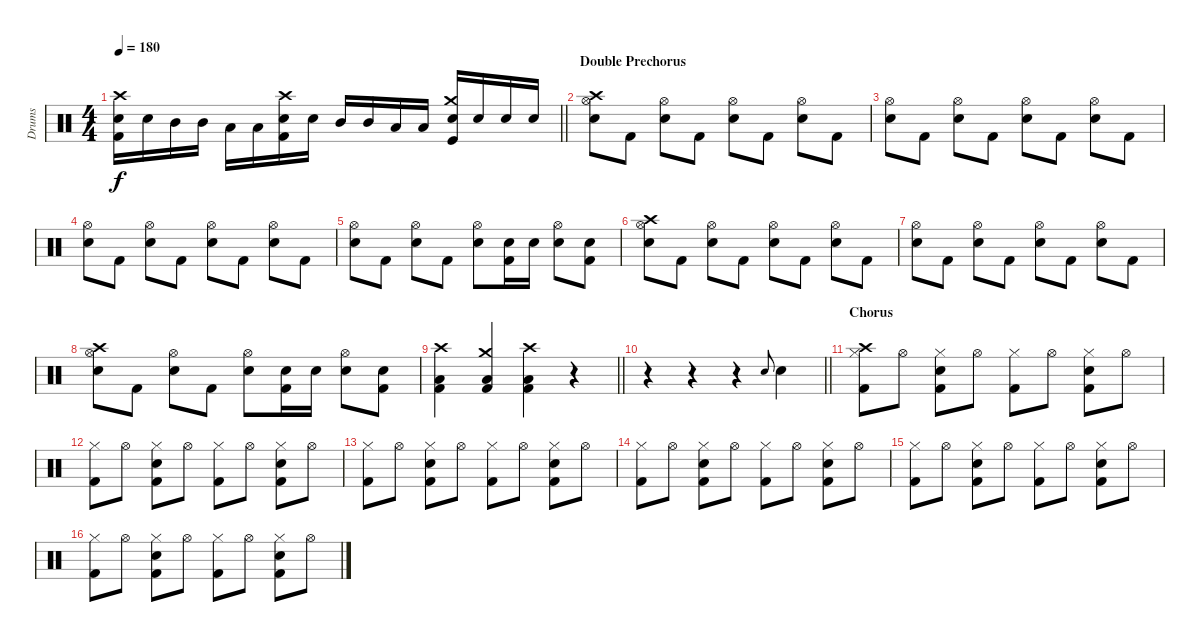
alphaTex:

\track ("Drums" "Drums") {instrument percussion}
\staff {score}
\articulation defaults
\ts (4 4)
\tempo 180
\clef neutral
\barLineRight lightlight
\ks c
("Crash high (hit)" "Snare (hit) 2" "Kick (hit) 2").16{dy f} "Snare (hit) 2".16 "Mid Tom (hit)".16 "Mid Tom (hit)".16 "Low Tom (hit)".16 "Low Tom (hit)".16 ("Crash high (hit)" "Snare (hit) 2" "Kick (hit) 2").16 "Snare (hit) 2".16 "Mid Tom (hit)".16 "Mid Tom (hit)".16 "Low Tom (hit)".16 "Low Tom (hit)".16 ("Crash medium (hit)" "Snare (hit) 2" "Kick (hit)").16 "Snare (hit) 2".16 "Snare (hit) 2".16 "Snare (hit) 2".16 |
\section ("" "Double Prechorus")
("Crash high (hit)" "Hi-Hat (open)" "Snare (hit) 2").8 "Kick (hit) 2".8 ("Hi-Hat (open)" "Snare (hit) 2").8 "Kick (hit) 2".8 ("Hi-Hat (open)" "Snare (hit) 2").8 "Kick (hit) 2".8 ("Hi-Hat (open)" "Snare (hit) 2").8 "Kick (hit) 2".8 |
("Hi-Hat (open)" "Snare (hit) 2").8 "Kick (hit) 2".8 ("Hi-Hat (open)" "Snare (hit) 2").8 "Kick (hit) 2".8 ("Hi-Hat (open)" "Snare (hit) 2").8 "Kick (hit) 2".8 ("Hi-Hat (open)" "Snare (hit) 2").8 "Kick (hit) 2".8 |
("Hi-Hat (open)" "Snare (hit) 2").8 "Kick (hit) 2".8 ("Hi-Hat (open)" "Snare (hit) 2").8 "Kick (hit) 2".8 ("Hi-Hat (open)" "Snare (hit) 2").8 "Kick (hit) 2".8 ("Hi-Hat (open)" "Snare (hit) 2").8 "Kick (hit) 2".8 |
("Hi-Hat (open)" "Snare (hit) 2").8 "Kick (hit) 2".8 ("Hi-Hat (open)" "Snare (hit) 2").8 "Kick (hit) 2".8 ("Hi-Hat (open)" "Snare (hit) 2").8 ("Snare (hit) 2" "Kick (hit) 2").16 "Snare (hit) 2".16 ("Hi-Hat (open)" "Snare (hit) 2").8 ("Snare (hit) 2" "Kick (hit) 2").8 |
("Crash high (hit)" "Hi-Hat (open)" "Snare (hit) 2").8 "Kick (hit) 2".8 ("Hi-Hat (open)" "Snare (hit) 2").8 "Kick (hit) 2".8 ("Hi-Hat (open)" "Snare (hit) 2").8 "Kick (hit) 2".8 ("Hi-Hat (open)" "Snare (hit) 2").8 "Kick (hit) 2".8 |
("Hi-Hat (open)" "Snare (hit) 2").8 "Kick (hit) 2".8 ("Hi-Hat (open)" "Snare (hit) 2").8 "Kick (hit) 2".8 ("Hi-Hat (open)" "Snare (hit) 2").8 "Kick (hit) 2".8 ("Hi-Hat (open)" "Snare (hit) 2").8 "Kick (hit) 2".8 |
("Crash high (hit)" "Hi-Hat (open)" "Snare (hit) 2").8 "Kick (hit) 2".8 ("Hi-Hat (open)" "Snare (hit) 2").8 "Kick (hit) 2".8 ("Hi-Hat (open)" "Snare (hit) 2").8 ("Snare (hit) 2" "Kick (hit) 2").16 "Snare (hit) 2".16 ("Hi-Hat (open)" "Snare (hit) 2").8 ("Snare (hit) 2" "Kick (hit) 2").8 |
\barLineRight lightlight
("Crash high (hit)" "Low Floor Tom (hit)" "Kick (hit) 2").4 ("Crash medium (hit)" "Low Floor Tom (hit)" "Kick (hit) 2").4 ("Crash high (hit)" "Low Floor Tom (hit)" "Kick (hit) 2").4 r.4 |
\barLineRight lightlight
r.4 r.4 r.4 "Snare (hit) 2".8{gr onbeat} "Snare (hit) 2".4 |
\section ("" "Chorus")
("Crash high (hit)" "Hi-Hat (closed)" "Kick (hit) 2").8 "Hi-Hat (open)".8 ("Hi-Hat (closed)" "Snare (hit) 2" "Kick (hit) 2").8 "Hi-Hat (open)".8 ("Hi-Hat (closed)" "Kick (hit) 2").8 "Hi-Hat (open)".8 ("Hi-Hat (closed)" "Snare (hit) 2" "Kick (hit) 2").8 "Hi-Hat (open)".8 |
("Hi-Hat (closed)" "Kick (hit) 2").8 "Hi-Hat (open)".8 ("Hi-Hat (closed)" "Snare (hit) 2" "Kick (hit) 2").8 "Hi-Hat (open)".8 ("Hi-Hat (closed)" "Kick (hit) 2").8 "Hi-Hat (open)".8 ("Hi-Hat (closed)" "Snare (hit) 2" "Kick (hit) 2").8 "Hi-Hat (open)".8 |
("Hi-Hat (closed)" "Kick (hit) 2").8 "Hi-Hat (open)".8 ("Hi-Hat (closed)" "Snare (hit) 2" "Kick (hit) 2").8 "Hi-Hat (open)".8 ("Hi-Hat (closed)" "Kick (hit) 2").8 "Hi-Hat (open)".8 ("Hi-Hat (closed)" "Snare (hit) 2" "Kick (hit) 2").8 "Hi-Hat (open)".8 |
("Hi-Hat (closed)" "Kick (hit) 2").8 "Hi-Hat (open)".8 ("Hi-Hat (closed)" "Snare (hit) 2" "Kick (hit) 2").8 "Hi-Hat (open)".8 ("Hi-Hat (closed)" "Kick (hit) 2").8 "Hi-Hat (open)".8 ("Hi-Hat (closed)" "Snare (hit) 2" "Kick (hit) 2").8 "Hi-Hat (open)".8 |
("Hi-Hat (closed)" "Kick (hit) 2").8 "Hi-Hat (open)".8 ("Hi-Hat (closed)" "Snare (hit) 2" "Kick (hit) 2").8 "Hi-Hat (open)".8 ("Hi-Hat (closed)" "Kick (hit) 2").8 "Hi-Hat (open)".8 ("Hi-Hat (closed)" "Snare (hit) 2" "Kick (hit) 2").8 "Hi-Hat (open)".8 |
("Hi-Hat (closed)" "Kick (hit) 2").8 "Hi-Hat (open)".8 ("Hi-Hat (closed)" "Snare (hit) 2" "Kick (hit) 2").8 "Hi-Hat (open)".8 ("Hi-Hat (closed)" "Kick (hit) 2").8 "Hi-Hat (open)".8 ("Hi-Hat (closed)" "Snare (hit) 2" "Kick (hit) 2").8 "Hi-Hat (open)".8
